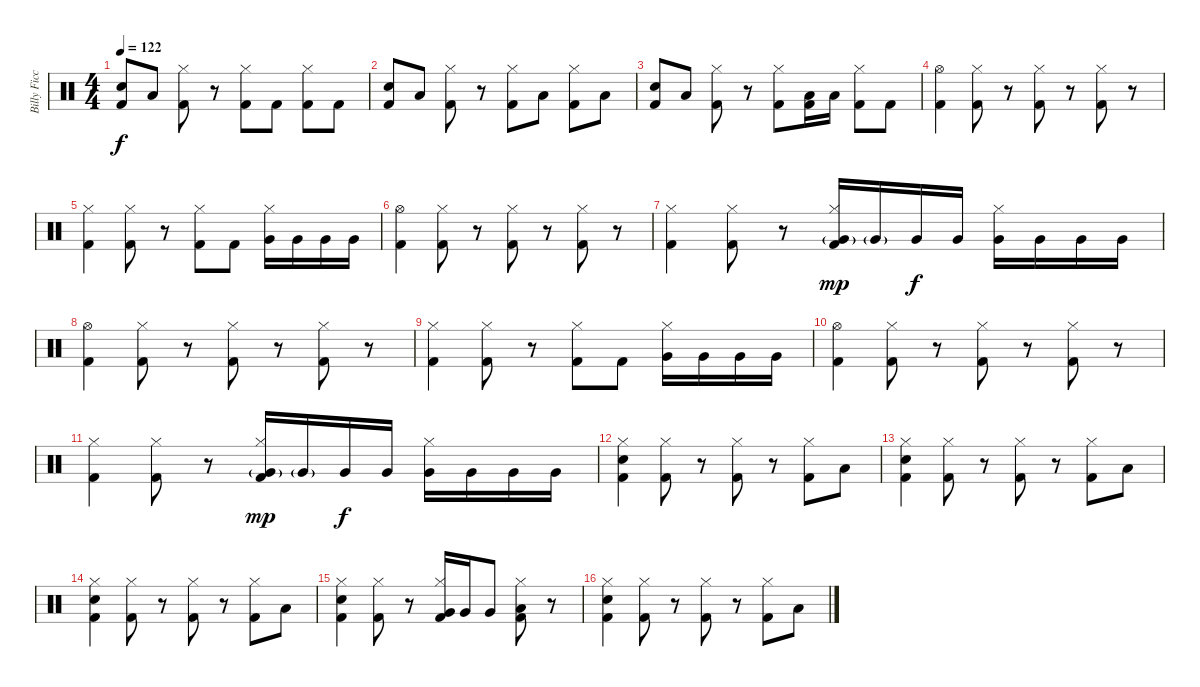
\track ("Billy Ficca" "Billy Ficc") {instrument percussion}
\staff {score}
\articulation defaults
\ts (4 4)
\tempo 122
\clef neutral
\ks c
("Electric Snare (hit)" "Kick (hit) 2").8{dy f} "Low Floor Tom (hit)".8 ("Hi-Hat (closed)" "Kick (hit) 2").8 r.8 ("Hi-Hat (closed)" "Kick (hit) 2").8 "Kick (hit) 2".8 ("Hi-Hat (closed)" "Kick (hit) 2").8 "Kick (hit) 2".8 |
("Electric Snare (hit)" "Kick (hit) 2").8 "Low Floor Tom (hit)".8 ("Hi-Hat (closed)" "Kick (hit) 2").8 r.8 ("Hi-Hat (closed)" "Kick (hit) 2").8 "Low Floor Tom (hit)".8 ("Hi-Hat (closed)" "Kick (hit) 2").8 "Low Floor Tom (hit)".8 |
("Electric Snare (hit)" "Kick (hit) 2").8 "Low Floor Tom (hit)".8 ("Hi-Hat (closed)" "Kick (hit) 2").8 r.8 ("Hi-Hat (closed)" "Kick (hit) 2").8 ("Low Floor Tom (hit)" "Kick (hit) 2").16 "Low Floor Tom (hit)".16 ("Hi-Hat (closed)" "Kick (hit) 2").8 "Kick (hit) 2".8 |
("Hi-Hat (open)" "Kick (hit) 2").4 ("Hi-Hat (closed)" "Kick (hit) 2").8 r.8 ("Hi-Hat (closed)" "Kick (hit) 2").8 r.8 ("Hi-Hat (closed)" "Kick (hit) 2").8 r.8 |
("Hi-Hat (closed)" "Kick (hit) 2").4 ("Hi-Hat (closed)" "Kick (hit) 2").8 r.8 ("Hi-Hat (closed)" "Kick (hit) 2").8 "Kick (hit) 2".8 ("Hi-Hat (closed)" "Very Low Tom (hit)").16 "Very Low Tom (hit)".16 "Very Low Tom (hit)".16 "Very Low Tom (hit)".16 |
("Hi-Hat (open)" "Kick (hit) 2").4 ("Hi-Hat (closed)" "Kick (hit) 2").8 r.8 ("Hi-Hat (closed)" "Kick (hit) 2").8 r.8 ("Hi-Hat (closed)" "Kick (hit) 2").8 r.8 |
("Hi-Hat (closed)" "Kick (hit) 2").4 ("Hi-Hat (closed)" "Kick (hit) 2").8 r.8 ("Hi-Hat (closed)" "Very Low Tom (hit)"{g} "Kick (hit) 2").16{dy mp} "Very Low Tom (hit)"{g}.16 "Very Low Tom (hit)".16{dy f} "Very Low Tom (hit)".16 ("Hi-Hat (closed)" "Very Low Tom (hit)").16 "Very Low Tom (hit)".16 "Very Low Tom (hit)".16 "Very Low Tom (hit)".16 |
("Hi-Hat (open)" "Kick (hit) 2").4 ("Hi-Hat (closed)" "Kick (hit) 2").8 r.8 ("Hi-Hat (closed)" "Kick (hit) 2").8 r.8 ("Hi-Hat (closed)" "Kick (hit) 2").8 r.8 |
("Hi-Hat (closed)" "Kick (hit) 2").4 ("Hi-Hat (closed)" "Kick (hit) 2").8 r.8 ("Hi-Hat (closed)" "Kick (hit) 2").8 "Kick (hit) 2".8 ("Hi-Hat (closed)" "Very Low Tom (hit)").16 "Very Low Tom (hit)".16 "Very Low Tom (hit)".16 "Very Low Tom (hit)".16 |
("Hi-Hat (open)" "Kick (hit) 2").4 ("Hi-Hat (closed)" "Kick (hit) 2").8 r.8 ("Hi-Hat (closed)" "Kick (hit) 2").8 r.8 ("Hi-Hat (closed)" "Kick (hit) 2").8 r.8 |
("Hi-Hat (closed)" "Kick (hit) 2").4 ("Hi-Hat (closed)" "Kick (hit) 2").8 r.8 ("Hi-Hat (closed)" "Very Low Tom (hit)"{g} "Kick (hit) 2").16{dy mp} "Very Low Tom (hit)"{g}.16 "Very Low Tom (hit)".16{dy f} "Very Low Tom (hit)".16 ("Hi-Hat (closed)" "Very Low Tom (hit)").16 "Very Low Tom (hit)".16 "Very Low Tom (hit)".16 "Very Low Tom (hit)".16 |
("Hi-Hat (closed)" "Electric Snare (hit)" "Kick (hit) 2").4 ("Hi-Hat (closed)" "Kick (hit) 2").8 r.8 ("Hi-Hat (closed)" "Kick (hit) 2").8 r.8 ("Hi-Hat (closed)" "Kick (hit) 2").8 "Low Floor Tom (hit)".8 |
("Hi-Hat (closed)" "Electric Snare (hit)" "Kick (hit) 2").4 ("Hi-Hat (closed)" "Kick (hit) 2").8 r.8 ("Hi-Hat (closed)" "Kick (hit) 2").8 r.8 ("Hi-Hat (closed)" "Kick (hit) 2").8 "Low Floor Tom (hit)".8 |
("Hi-Hat (closed)" "Electric Snare (hit)" "Kick (hit) 2").4 ("Hi-Hat (closed)" "Kick (hit) 2").8 r.8 ("Hi-Hat (closed)" "Kick (hit) 2").8 r.8 ("Hi-Hat (closed)" "Kick (hit) 2").8 "Low Floor Tom (hit)".8 |
("Hi-Hat (closed)" "Electric Snare (hit)" "Kick (hit) 2").4 ("Hi-Hat (closed)" "Kick (hit) 2").8 r.8 ("Hi-Hat (closed)" "Very Low Tom (hit)" "Kick (hit) 2").16 "Very Low Tom (hit)".16 "Very Low Tom (hit)".8 ("Hi-Hat (closed)" "Low Floor Tom (hit)" "Kick (hit) 2").8 r.8 |
("Hi-Hat (closed)" "Electric Snare (hit)" "Kick (hit) 2").4 ("Hi-Hat (closed)" "Kick (hit) 2").8 r.8 ("Hi-Hat (closed)" "Kick (hit) 2").8 r.8 ("Hi-Hat (closed)" "Kick (hit) 2").8 "Low Floor Tom (hit)".8
